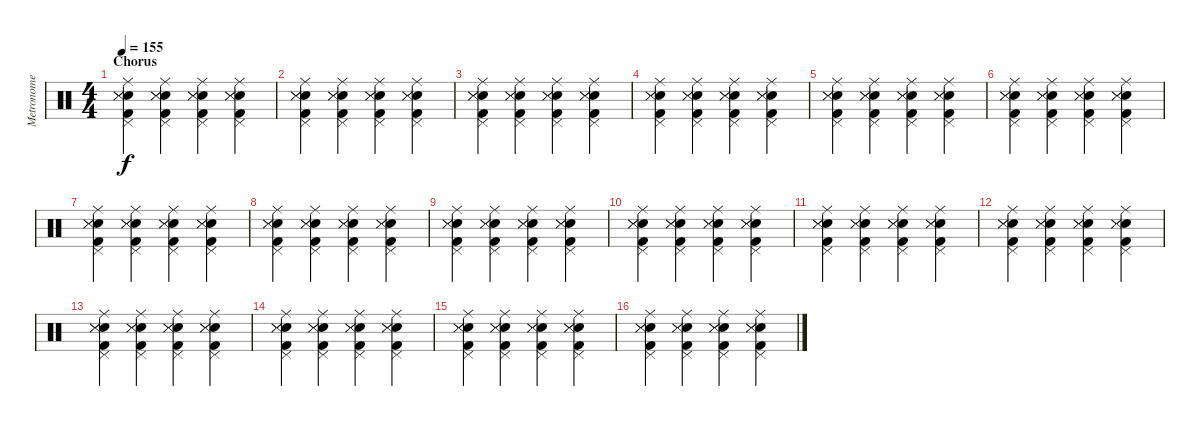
\track ("Metronome" "Metronome") {mute instrument percussion}
\staff {score}
\articulation defaults
\ts (4 4)
\section ("" "Chorus")
\tempo 155
\clef neutral
\ks c
("Ride (middle)" "Pedal Hi-Hat (hit)" "Electric Snare (hit)" "Snare (side stick) 3" "Metronome (hit)" "Kick (hit) 2").4{dy f} ("Ride (middle)" "Pedal Hi-Hat (hit)" "Electric Snare (hit)" "Snare (side stick) 3" "Metronome (hit)" "Kick (hit) 2").4 ("Ride (middle)" "Pedal Hi-Hat (hit)" "Electric Snare (hit)" "Snare (side stick) 3" "Metronome (hit)" "Kick (hit) 2").4 ("Ride (middle)" "Pedal Hi-Hat (hit)" "Electric Snare (hit)" "Snare (side stick) 3" "Metronome (hit)" "Kick (hit) 2").4 |
("Ride (middle)" "Pedal Hi-Hat (hit)" "Electric Snare (hit)" "Snare (side stick) 3" "Metronome (hit)" "Kick (hit) 2").4 ("Ride (middle)" "Pedal Hi-Hat (hit)" "Electric Snare (hit)" "Snare (side stick) 3" "Metronome (hit)" "Kick (hit) 2").4 ("Ride (middle)" "Pedal Hi-Hat (hit)" "Electric Snare (hit)" "Snare (side stick) 3" "Metronome (hit)" "Kick (hit) 2").4 ("Ride (middle)" "Pedal Hi-Hat (hit)" "Electric Snare (hit)" "Snare (side stick) 3" "Metronome (hit)" "Kick (hit) 2").4 |
("Ride (middle)" "Pedal Hi-Hat (hit)" "Electric Snare (hit)" "Snare (side stick) 3" "Metronome (hit)" "Kick (hit) 2").4 ("Ride (middle)" "Pedal Hi-Hat (hit)" "Electric Snare (hit)" "Snare (side stick) 3" "Metronome (hit)" "Kick (hit) 2").4 ("Ride (middle)" "Pedal Hi-Hat (hit)" "Electric Snare (hit)" "Snare (side stick) 3" "Metronome (hit)" "Kick (hit) 2").4 ("Ride (middle)" "Pedal Hi-Hat (hit)" "Electric Snare (hit)" "Snare (side stick) 3" "Metronome (hit)" "Kick (hit) 2").4 |
("Ride (middle)" "Pedal Hi-Hat (hit)" "Electric Snare (hit)" "Snare (side stick) 3" "Metronome (hit)" "Kick (hit) 2").4 ("Ride (middle)" "Pedal Hi-Hat (hit)" "Electric Snare (hit)" "Snare (side stick) 3" "Metronome (hit)" "Kick (hit) 2").4 ("Ride (middle)" "Pedal Hi-Hat (hit)" "Electric Snare (hit)" "Snare (side stick) 3" "Metronome (hit)" "Kick (hit) 2").4 ("Ride (middle)" "Pedal Hi-Hat (hit)" "Electric Snare (hit)" "Snare (side stick) 3" "Metronome (hit)" "Kick (hit) 2").4 |
("Ride (middle)" "Pedal Hi-Hat (hit)" "Electric Snare (hit)" "Snare (side stick) 3" "Metronome (hit)" "Kick (hit) 2").4 ("Ride (middle)" "Pedal Hi-Hat (hit)" "Electric Snare (hit)" "Snare (side stick) 3" "Metronome (hit)" "Kick (hit) 2").4 ("Ride (middle)" "Pedal Hi-Hat (hit)" "Electric Snare (hit)" "Snare (side stick) 3" "Metronome (hit)" "Kick (hit) 2").4 ("Ride (middle)" "Pedal Hi-Hat (hit)" "Electric Snare (hit)" "Snare (side stick) 3" "Metronome (hit)" "Kick (hit) 2").4 |
("Ride (middle)" "Pedal Hi-Hat (hit)" "Electric Snare (hit)" "Snare (side stick) 3" "Metronome (hit)" "Kick (hit) 2").4 ("Ride (middle)" "Pedal Hi-Hat (hit)" "Electric Snare (hit)" "Snare (side stick) 3" "Metronome (hit)" "Kick (hit) 2").4 ("Ride (middle)" "Pedal Hi-Hat (hit)" "Electric Snare (hit)" "Snare (side stick) 3" "Metronome (hit)" "Kick (hit) 2").4 ("Ride (middle)" "Pedal Hi-Hat (hit)" "Electric Snare (hit)" "Snare (side stick) 3" "Metronome (hit)" "Kick (hit) 2").4 |
("Ride (middle)" "Pedal Hi-Hat (hit)" "Electric Snare (hit)" "Snare (side stick) 3" "Metronome (hit)" "Kick (hit) 2").4 ("Ride (middle)" "Pedal Hi-Hat (hit)" "Electric Snare (hit)" "Snare (side stick) 3" "Metronome (hit)" "Kick (hit) 2").4 ("Ride (middle)" "Pedal Hi-Hat (hit)" "Electric Snare (hit)" "Snare (side stick) 3" "Metronome (hit)" "Kick (hit) 2").4 ("Ride (middle)" "Pedal Hi-Hat (hit)" "Electric Snare (hit)" "Snare (side stick) 3" "Metronome (hit)" "Kick (hit) 2").4 |
("Ride (middle)" "Pedal Hi-Hat (hit)" "Electric Snare (hit)" "Snare (side stick) 3" "Metronome (hit)" "Kick (hit) 2").4 ("Ride (middle)" "Pedal Hi-Hat (hit)" "Electric Snare (hit)" "Snare (side stick) 3" "Metronome (hit)" "Kick (hit) 2").4 ("Ride (middle)" "Pedal Hi-Hat (hit)" "Electric Snare (hit)" "Snare (side stick) 3" "Metronome (hit)" "Kick (hit) 2").4 ("Ride (middle)" "Pedal Hi-Hat (hit)" "Electric Snare (hit)" "Snare (side stick) 3" "Metronome (hit)" "Kick (hit) 2").4 |
("Ride (middle)" "Pedal Hi-Hat (hit)" "Electric Snare (hit)" "Snare (side stick) 3" "Metronome (hit)" "Kick (hit) 2").4 ("Ride (middle)" "Pedal Hi-Hat (hit)" "Electric Snare (hit)" "Snare (side stick) 3" "Metronome (hit)" "Kick (hit) 2").4 ("Ride (middle)" "Pedal Hi-Hat (hit)" "Electric Snare (hit)" "Snare (side stick) 3" "Metronome (hit)" "Kick (hit) 2").4 ("Ride (middle)" "Pedal Hi-Hat (hit)" "Electric Snare (hit)" "Snare (side stick) 3" "Metronome (hit)" "Kick (hit) 2").4 |
("Ride (middle)" "Pedal Hi-Hat (hit)" "Electric Snare (hit)" "Snare (side stick) 3" "Metronome (hit)" "Kick (hit) 2").4 ("Ride (middle)" "Pedal Hi-Hat (hit)" "Electric Snare (hit)" "Snare (side stick) 3" "Metronome (hit)" "Kick (hit) 2").4 ("Ride (middle)" "Pedal Hi-Hat (hit)" "Electric Snare (hit)" "Snare (side stick) 3" "Metronome (hit)" "Kick (hit) 2").4 ("Ride (middle)" "Pedal Hi-Hat (hit)" "Electric Snare (hit)" "Snare (side stick) 3" "Metronome (hit)" "Kick (hit) 2").4 |
("Ride (middle)" "Pedal Hi-Hat (hit)" "Electric Snare (hit)" "Snare (side stick) 3" "Metronome (hit)" "Kick (hit) 2").4 ("Ride (middle)" "Pedal Hi-Hat (hit)" "Electric Snare (hit)" "Snare (side stick) 3" "Metronome (hit)" "Kick (hit) 2").4 ("Ride (middle)" "Pedal Hi-Hat (hit)" "Electric Snare (hit)" "Snare (side stick) 3" "Metronome (hit)" "Kick (hit) 2").4 ("Ride (middle)" "Pedal Hi-Hat (hit)" "Electric Snare (hit)" "Snare (side stick) 3" "Metronome (hit)" "Kick (hit) 2").4 |
("Ride (middle)" "Pedal Hi-Hat (hit)" "Electric Snare (hit)" "Snare (side stick) 3" "Metronome (hit)" "Kick (hit) 2").4 ("Ride (middle)" "Pedal Hi-Hat (hit)" "Electric Snare (hit)" "Snare (side stick) 3" "Metronome (hit)" "Kick (hit) 2").4 ("Ride (middle)" "Pedal Hi-Hat (hit)" "Electric Snare (hit)" "Snare (side stick) 3" "Metronome (hit)" "Kick (hit) 2").4 ("Ride (middle)" "Pedal Hi-Hat (hit)" "Electric Snare (hit)" "Snare (side stick) 3" "Metronome (hit)" "Kick (hit) 2").4 |
("Ride (middle)" "Pedal Hi-Hat (hit)" "Electric Snare (hit)" "Snare (side stick) 3" "Metronome (hit)" "Kick (hit) 2").4 ("Ride (middle)" "Pedal Hi-Hat (hit)" "Electric Snare (hit)" "Snare (side stick) 3" "Metronome (hit)" "Kick (hit) 2").4 ("Ride (middle)" "Pedal Hi-Hat (hit)" "Electric Snare (hit)" "Snare (side stick) 3" "Metronome (hit)" "Kick (hit) 2").4 ("Ride (middle)" "Pedal Hi-Hat (hit)" "Electric Snare (hit)" "Snare (side stick) 3" "Metronome (hit)" "Kick (hit) 2").4 |
("Ride (middle)" "Pedal Hi-Hat (hit)" "Electric Snare (hit)" "Snare (side stick) 3" "Metronome (hit)" "Kick (hit) 2").4 ("Ride (middle)" "Pedal Hi-Hat (hit)" "Electric Snare (hit)" "Snare (side stick) 3" "Metronome (hit)" "Kick (hit) 2").4 ("Ride (middle)" "Pedal Hi-Hat (hit)" "Electric Snare (hit)" "Snare (side stick) 3" "Metronome (hit)" "Kick (hit) 2").4 ("Ride (middle)" "Pedal Hi-Hat (hit)" "Electric Snare (hit)" "Snare (side stick) 3" "Metronome (hit)" "Kick (hit) 2").4 |
("Ride (middle)" "Pedal Hi-Hat (hit)" "Electric Snare (hit)" "Snare (side stick) 3" "Metronome (hit)" "Kick (hit) 2").4 ("Ride (middle)" "Pedal Hi-Hat (hit)" "Electric Snare (hit)" "Snare (side stick) 3" "Metronome (hit)" "Kick (hit) 2").4 ("Ride (middle)" "Pedal Hi-Hat (hit)" "Electric Snare (hit)" "Snare (side stick) 3" "Metronome (hit)" "Kick (hit) 2").4 ("Ride (middle)" "Pedal Hi-Hat (hit)" "Electric Snare (hit)" "Snare (side stick) 3" "Metronome (hit)" "Kick (hit) 2").4 |
("Ride (middle)" "Pedal Hi-Hat (hit)" "Electric Snare (hit)" "Snare (side stick) 3" "Metronome (hit)" "Kick (hit) 2").4 ("Ride (middle)" "Pedal Hi-Hat (hit)" "Electric Snare (hit)" "Snare (side stick) 3" "Metronome (hit)" "Kick (hit) 2").4 ("Ride (middle)" "Pedal Hi-Hat (hit)" "Electric Snare (hit)" "Snare (side stick) 3" "Metronome (hit)" "Kick (hit) 2").4 ("Ride (middle)" "Pedal Hi-Hat (hit)" "Electric Snare (hit)" "Snare (side stick) 3" "Metronome (hit)" "Kick (hit) 2").4
